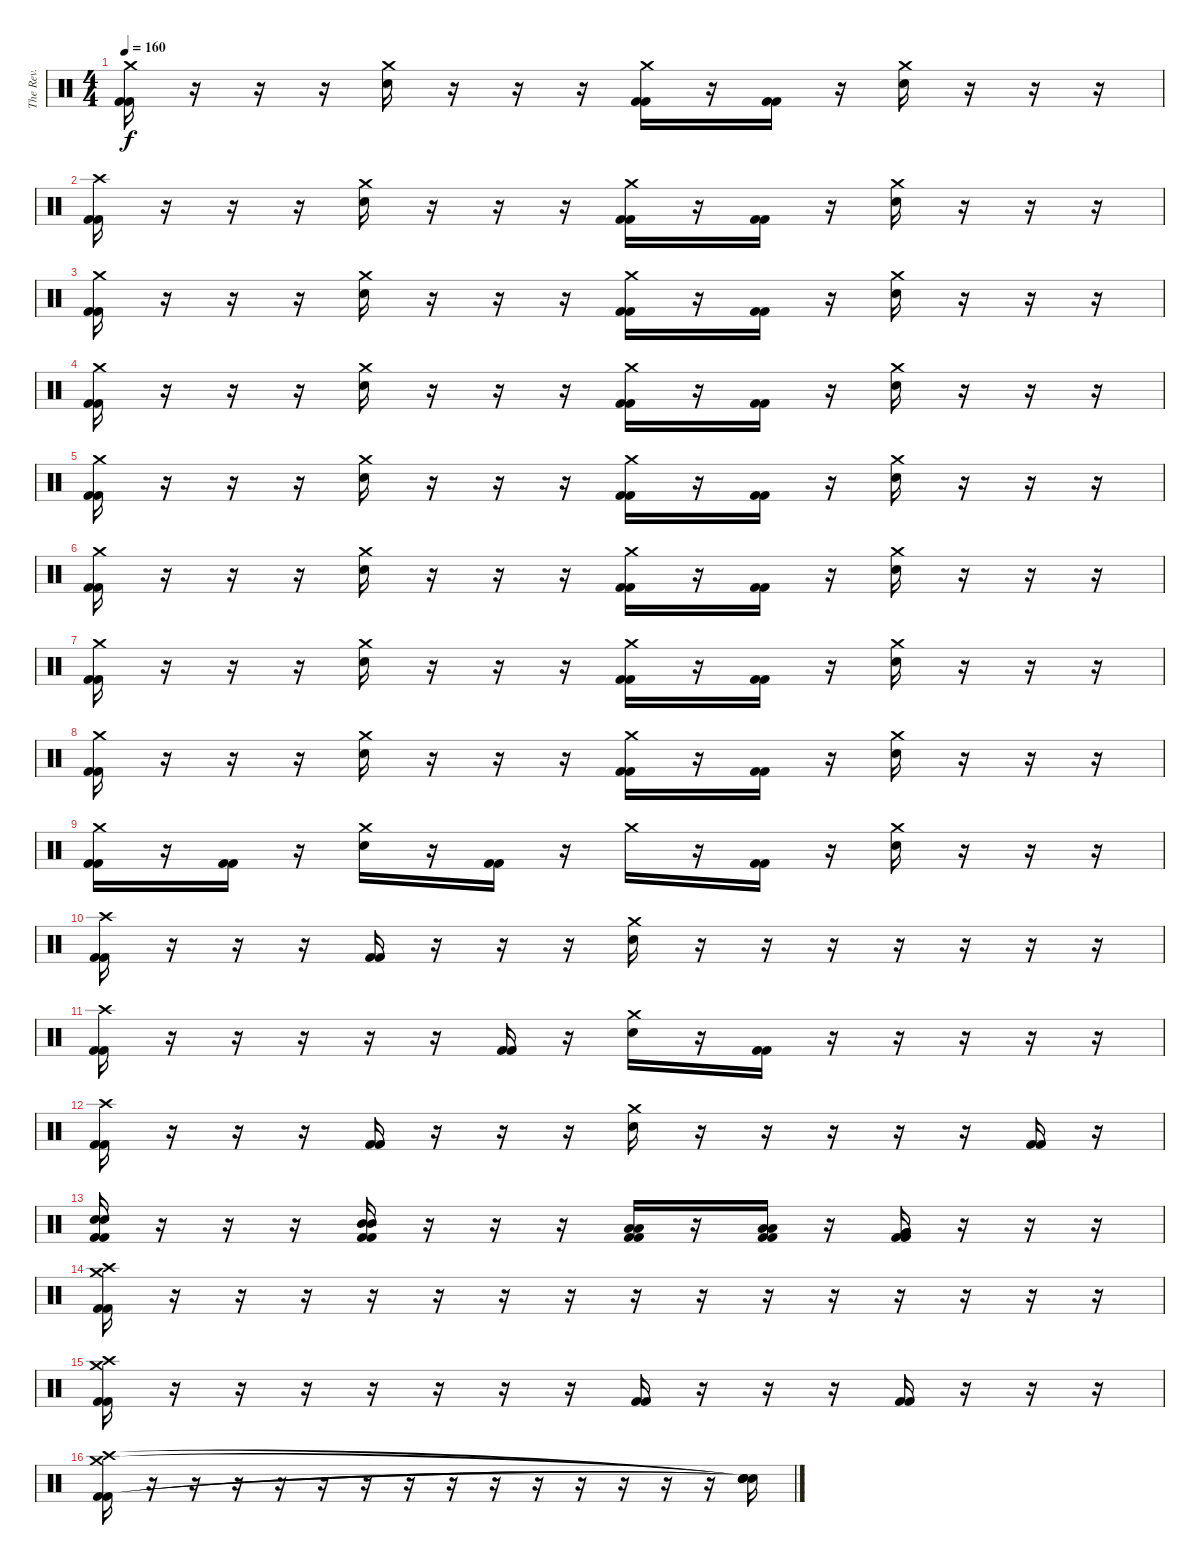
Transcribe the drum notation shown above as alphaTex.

\track ("The Rev." "The Rev.") {instrument percussion}
\staff {score}
\articulation defaults
\ts (4 4)
\tempo 160
\clef neutral
\ks c
("Crash medium (hit)" "Kick (hit) 2" "Kick (hit) 2").16{dy f} r.16 r.16 r.16 ("Crash medium (hit)" "Electric Snare (hit)").16 r.16 r.16 r.16 ("Crash medium (hit)" "Kick (hit) 2" "Kick (hit) 2").16 r.16 ("Kick (hit) 2" "Kick (hit) 2").16 r.16 ("Crash medium (hit)" "Electric Snare (hit)").16 r.16 r.16 r.16 |
("Crash high (hit)" "Kick (hit) 2" "Kick (hit) 2").16 r.16 r.16 r.16 ("Crash medium (hit)" "Electric Snare (hit)").16 r.16 r.16 r.16 ("Crash medium (hit)" "Kick (hit) 2" "Kick (hit) 2").16 r.16 ("Kick (hit) 2" "Kick (hit) 2").16 r.16 ("Crash medium (hit)" "Electric Snare (hit)").16 r.16 r.16 r.16 |
("Crash medium (hit)" "Kick (hit) 2" "Kick (hit) 2").16 r.16 r.16 r.16 ("Crash medium (hit)" "Electric Snare (hit)").16 r.16 r.16 r.16 ("Crash medium (hit)" "Kick (hit) 2" "Kick (hit) 2").16 r.16 ("Kick (hit) 2" "Kick (hit) 2").16 r.16 ("Crash medium (hit)" "Electric Snare (hit)").16 r.16 r.16 r.16 |
("Crash medium (hit)" "Kick (hit) 2" "Kick (hit) 2").16 r.16 r.16 r.16 ("Crash medium (hit)" "Electric Snare (hit)").16 r.16 r.16 r.16 ("Crash medium (hit)" "Kick (hit) 2" "Kick (hit) 2").16 r.16 ("Kick (hit) 2" "Kick (hit) 2").16 r.16 ("Crash medium (hit)" "Electric Snare (hit)").16 r.16 r.16 r.16 |
("Crash medium (hit)" "Kick (hit) 2" "Kick (hit) 2").16 r.16 r.16 r.16 ("Crash medium (hit)" "Electric Snare (hit)").16 r.16 r.16 r.16 ("Crash medium (hit)" "Kick (hit) 2" "Kick (hit) 2").16 r.16 ("Kick (hit) 2" "Kick (hit) 2").16 r.16 ("Crash medium (hit)" "Electric Snare (hit)").16 r.16 r.16 r.16 |
("Crash medium (hit)" "Kick (hit) 2" "Kick (hit) 2").16 r.16 r.16 r.16 ("Crash medium (hit)" "Electric Snare (hit)").16 r.16 r.16 r.16 ("Crash medium (hit)" "Kick (hit) 2" "Kick (hit) 2").16 r.16 ("Kick (hit) 2" "Kick (hit) 2").16 r.16 ("Crash medium (hit)" "Electric Snare (hit)").16 r.16 r.16 r.16 |
("Crash medium (hit)" "Kick (hit) 2" "Kick (hit) 2").16 r.16 r.16 r.16 ("Crash medium (hit)" "Electric Snare (hit)").16 r.16 r.16 r.16 ("Crash medium (hit)" "Kick (hit) 2" "Kick (hit) 2").16 r.16 ("Kick (hit) 2" "Kick (hit) 2").16 r.16 ("Crash medium (hit)" "Electric Snare (hit)").16 r.16 r.16 r.16 |
("Crash medium (hit)" "Kick (hit) 2" "Kick (hit) 2").16 r.16 r.16 r.16 ("Crash medium (hit)" "Electric Snare (hit)").16 r.16 r.16 r.16 ("Crash medium (hit)" "Kick (hit) 2" "Kick (hit) 2").16 r.16 ("Kick (hit) 2" "Kick (hit) 2").16 r.16 ("Crash medium (hit)" "Electric Snare (hit)").16 r.16 r.16 r.16 |
("Crash medium (hit)" "Kick (hit) 2" "Kick (hit) 2").16 r.16 ("Kick (hit) 2" "Kick (hit) 2").16 r.16 ("Crash medium (hit)" "Electric Snare (hit)").16 r.16 ("Kick (hit) 2" "Kick (hit) 2").16 r.16 "Crash medium (hit)".16 r.16 ("Kick (hit) 2" "Kick (hit) 2").16 r.16 ("Crash medium (hit)" "Electric Snare (hit)").16 r.16 r.16 r.16 |
("Crash high (hit)" "Kick (hit) 2" "Kick (hit) 2").16 r.16 r.16 r.16 ("Kick (hit) 2" "Kick (hit) 2").16 r.16 r.16 r.16 ("Crash medium (hit)" "Electric Snare (hit)").16 r.16 r.16 r.16 r.16 r.16 r.16 r.16 |
("Crash high (hit)" "Kick (hit) 2" "Kick (hit) 2").16 r.16 r.16 r.16 r.16 r.16 ("Kick (hit) 2" "Kick (hit) 2").16 r.16 ("Crash medium (hit)" "Electric Snare (hit)").16 r.16 ("Kick (hit) 2" "Kick (hit) 2").16 r.16 r.16 r.16 r.16 r.16 |
("Crash high (hit)" "Kick (hit) 2" "Kick (hit) 2").16 r.16 r.16 r.16 ("Kick (hit) 2" "Kick (hit) 2").16 r.16 r.16 r.16 ("Crash medium (hit)" "Electric Snare (hit)").16 r.16 r.16 r.16 r.16 r.16 ("Kick (hit) 2" "Kick (hit) 2").16 r.16 |
("Electric Snare (hit)" "Electric Snare (hit)" "Kick (hit) 2" "Kick (hit) 2").16 r.16 r.16 r.16 ("Mid Tom (hit)" "Mid Tom (hit)" "Kick (hit) 2" "Kick (hit) 2").16 r.16 r.16 r.16 ("Low Tom (hit)" "Low Tom (hit)" "Kick (hit) 2" "Kick (hit) 2").16 r.16 ("Low Tom (hit)" "Low Tom (hit)" "Kick (hit) 2" "Kick (hit) 2").16 r.16 ("Very Low Tom (hit)" "Very Low Tom (hit)" "Kick (hit) 2" "Kick (hit) 2").16 r.16 r.16 r.16 |
("Crash high (hit)" "Crash medium (hit)" "Kick (hit) 2" "Kick (hit) 2").16 r.16 r.16 r.16 r.16 r.16 r.16 r.16 r.16 r.16 r.16 r.16 r.16 r.16 r.16 r.16 |
("Crash medium (hit)" "Crash high (hit)" "Kick (hit) 2" "Kick (hit) 2").16 r.16 r.16 r.16 r.16 r.16 r.16 r.16 ("Kick (hit) 2" "Kick (hit) 2").16 r.16 r.16 r.16 ("Kick (hit) 2" "Kick (hit) 2").16 r.16 r.16 r.16 |
("Crash high (hit)" "Crash medium (hit)" "Kick (hit) 2" "Kick (hit) 2").16 r.16 r.16 r.16 r.16 r.16 r.16 r.16 r.16 r.16 r.16 r.16 r.16 r.16 r.16 ("Snare (hit)"{t} "Snare (hit)"{t} "Snare (hit)"{t} "Snare (hit)"{t}).16
